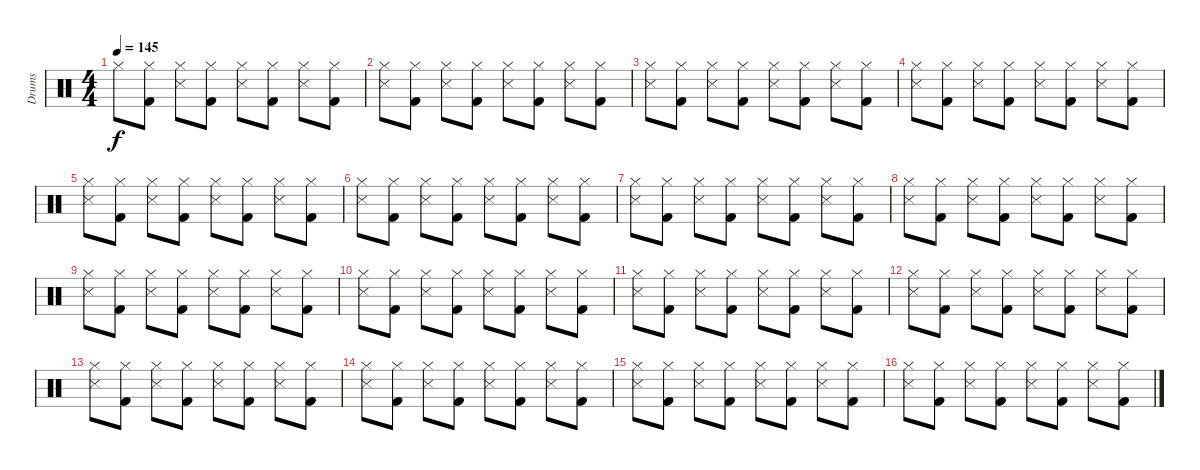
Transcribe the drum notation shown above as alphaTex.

\track ("Drums" "Drums") {instrument percussion}
\staff {score}
\articulation defaults
\ts (4 4)
\tempo 145
\clef neutral
\ks c "Hi-Hat (closed)".8{dy f}
("Hi-Hat (closed)" "Kick (hit) 2").8 ("Snare (side stick) 3" "Hi-Hat (closed)").8 ("Hi-Hat (closed)" "Kick (hit) 2").8 ("Snare (side stick) 3" "Hi-Hat (closed)").8 ("Hi-Hat (closed)" "Kick (hit) 2").8 ("Snare (side stick) 3" "Hi-Hat (closed)").8 ("Hi-Hat (closed)" "Kick (hit) 2").8 |
("Snare (side stick) 3" "Hi-Hat (closed)").8 ("Hi-Hat (closed)" "Kick (hit) 2").8 ("Snare (side stick) 3" "Hi-Hat (closed)").8 ("Hi-Hat (closed)" "Kick (hit) 2").8 ("Snare (side stick) 3" "Hi-Hat (closed)").8 ("Hi-Hat (closed)" "Kick (hit) 2").8 ("Snare (side stick) 3" "Hi-Hat (closed)").8 ("Hi-Hat (closed)" "Kick (hit) 2").8 |
("Snare (side stick) 3" "Hi-Hat (closed)").8 ("Hi-Hat (closed)" "Kick (hit) 2").8 ("Snare (side stick) 3" "Hi-Hat (closed)").8 ("Hi-Hat (closed)" "Kick (hit) 2").8 ("Snare (side stick) 3" "Hi-Hat (closed)").8 ("Hi-Hat (closed)" "Kick (hit) 2").8 ("Snare (side stick) 3" "Hi-Hat (closed)").8 ("Hi-Hat (closed)" "Kick (hit) 2").8 |
("Snare (side stick) 3" "Hi-Hat (closed)").8 ("Hi-Hat (closed)" "Kick (hit) 2").8 ("Snare (side stick) 3" "Hi-Hat (closed)").8 ("Hi-Hat (closed)" "Kick (hit) 2").8 ("Snare (side stick) 3" "Hi-Hat (closed)").8 ("Hi-Hat (closed)" "Kick (hit) 2").8 ("Snare (side stick) 3" "Hi-Hat (closed)").8 ("Hi-Hat (closed)" "Kick (hit) 2").8 |
("Snare (side stick) 3" "Hi-Hat (closed)").8 ("Hi-Hat (closed)" "Kick (hit) 2").8 ("Snare (side stick) 3" "Hi-Hat (closed)").8 ("Hi-Hat (closed)" "Kick (hit) 2").8 ("Snare (side stick) 3" "Hi-Hat (closed)").8 ("Hi-Hat (closed)" "Kick (hit) 2").8 ("Snare (side stick) 3" "Hi-Hat (closed)").8 ("Hi-Hat (closed)" "Kick (hit) 2").8 |
("Snare (side stick) 3" "Hi-Hat (closed)").8 ("Hi-Hat (closed)" "Kick (hit) 2").8 ("Snare (side stick) 3" "Hi-Hat (closed)").8 ("Hi-Hat (closed)" "Kick (hit) 2").8 ("Snare (side stick) 3" "Hi-Hat (closed)").8 ("Hi-Hat (closed)" "Kick (hit) 2").8 ("Snare (side stick) 3" "Hi-Hat (closed)").8 ("Hi-Hat (closed)" "Kick (hit) 2").8 |
("Snare (side stick) 3" "Hi-Hat (closed)").8 ("Hi-Hat (closed)" "Kick (hit) 2").8 ("Snare (side stick) 3" "Hi-Hat (closed)").8 ("Hi-Hat (closed)" "Kick (hit) 2").8 ("Snare (side stick) 3" "Hi-Hat (closed)").8 ("Hi-Hat (closed)" "Kick (hit) 2").8 ("Snare (side stick) 3" "Hi-Hat (closed)").8 ("Hi-Hat (closed)" "Kick (hit) 2").8 |
("Snare (side stick) 3" "Hi-Hat (closed)").8 ("Hi-Hat (closed)" "Kick (hit) 2").8 ("Snare (side stick) 3" "Hi-Hat (closed)").8 ("Hi-Hat (closed)" "Kick (hit) 2").8 ("Snare (side stick) 3" "Hi-Hat (closed)").8 ("Hi-Hat (closed)" "Kick (hit) 2").8 ("Snare (side stick) 3" "Hi-Hat (closed)").8 ("Hi-Hat (closed)" "Kick (hit) 2").8 |
("Snare (side stick) 3" "Hi-Hat (closed)").8 ("Hi-Hat (closed)" "Kick (hit) 2").8 ("Snare (side stick) 3" "Hi-Hat (closed)").8 ("Hi-Hat (closed)" "Kick (hit) 2").8 ("Snare (side stick) 3" "Hi-Hat (closed)").8 ("Hi-Hat (closed)" "Kick (hit) 2").8 ("Snare (side stick) 3" "Hi-Hat (closed)").8 ("Hi-Hat (closed)" "Kick (hit) 2").8 |
("Snare (side stick) 3" "Hi-Hat (closed)").8 ("Hi-Hat (closed)" "Kick (hit) 2").8 ("Snare (side stick) 3" "Hi-Hat (closed)").8 ("Hi-Hat (closed)" "Kick (hit) 2").8 ("Snare (side stick) 3" "Hi-Hat (closed)").8 ("Hi-Hat (closed)" "Kick (hit) 2").8 ("Snare (side stick) 3" "Hi-Hat (closed)").8 ("Hi-Hat (closed)" "Kick (hit) 2").8 |
("Snare (side stick) 3" "Hi-Hat (closed)").8 ("Hi-Hat (closed)" "Kick (hit) 2").8 ("Snare (side stick) 3" "Hi-Hat (closed)").8 ("Hi-Hat (closed)" "Kick (hit) 2").8 ("Snare (side stick) 3" "Hi-Hat (closed)").8 ("Hi-Hat (closed)" "Kick (hit) 2").8 ("Snare (side stick) 3" "Hi-Hat (closed)").8 ("Hi-Hat (closed)" "Kick (hit) 2").8 |
("Snare (side stick) 3" "Hi-Hat (closed)").8 ("Hi-Hat (closed)" "Kick (hit) 2").8 ("Snare (side stick) 3" "Hi-Hat (closed)").8 ("Hi-Hat (closed)" "Kick (hit) 2").8 ("Snare (side stick) 3" "Hi-Hat (closed)").8 ("Hi-Hat (closed)" "Kick (hit) 2").8 ("Snare (side stick) 3" "Hi-Hat (closed)").8 ("Hi-Hat (closed)" "Kick (hit) 2").8 |
("Snare (side stick) 3" "Hi-Hat (closed)").8 ("Hi-Hat (closed)" "Kick (hit) 2").8 ("Snare (side stick) 3" "Hi-Hat (closed)").8 ("Hi-Hat (closed)" "Kick (hit) 2").8 ("Snare (side stick) 3" "Hi-Hat (closed)").8 ("Hi-Hat (closed)" "Kick (hit) 2").8 ("Snare (side stick) 3" "Hi-Hat (closed)").8 ("Hi-Hat (closed)" "Kick (hit) 2").8 |
("Snare (side stick) 3" "Hi-Hat (closed)").8 ("Hi-Hat (closed)" "Kick (hit) 2").8 ("Snare (side stick) 3" "Hi-Hat (closed)").8 ("Hi-Hat (closed)" "Kick (hit) 2").8 ("Snare (side stick) 3" "Hi-Hat (closed)").8 ("Hi-Hat (closed)" "Kick (hit) 2").8 ("Snare (side stick) 3" "Hi-Hat (closed)").8 ("Hi-Hat (closed)" "Kick (hit) 2").8 |
("Snare (side stick) 3" "Hi-Hat (closed)").8 ("Hi-Hat (closed)" "Kick (hit) 2").8 ("Snare (side stick) 3" "Hi-Hat (closed)").8 ("Hi-Hat (closed)" "Kick (hit) 2").8 ("Snare (side stick) 3" "Hi-Hat (closed)").8 ("Hi-Hat (closed)" "Kick (hit) 2").8 ("Snare (side stick) 3" "Hi-Hat (closed)").8 ("Hi-Hat (closed)" "Kick (hit) 2").8 |
("Snare (side stick) 3" "Hi-Hat (closed)").8 ("Hi-Hat (closed)" "Kick (hit) 2").8 ("Snare (side stick) 3" "Hi-Hat (closed)").8 ("Hi-Hat (closed)" "Kick (hit) 2").8 ("Snare (side stick) 3" "Hi-Hat (closed)").8 ("Hi-Hat (closed)" "Kick (hit) 2").8 ("Snare (side stick) 3" "Hi-Hat (closed)").8 ("Hi-Hat (closed)" "Kick (hit) 2").8
